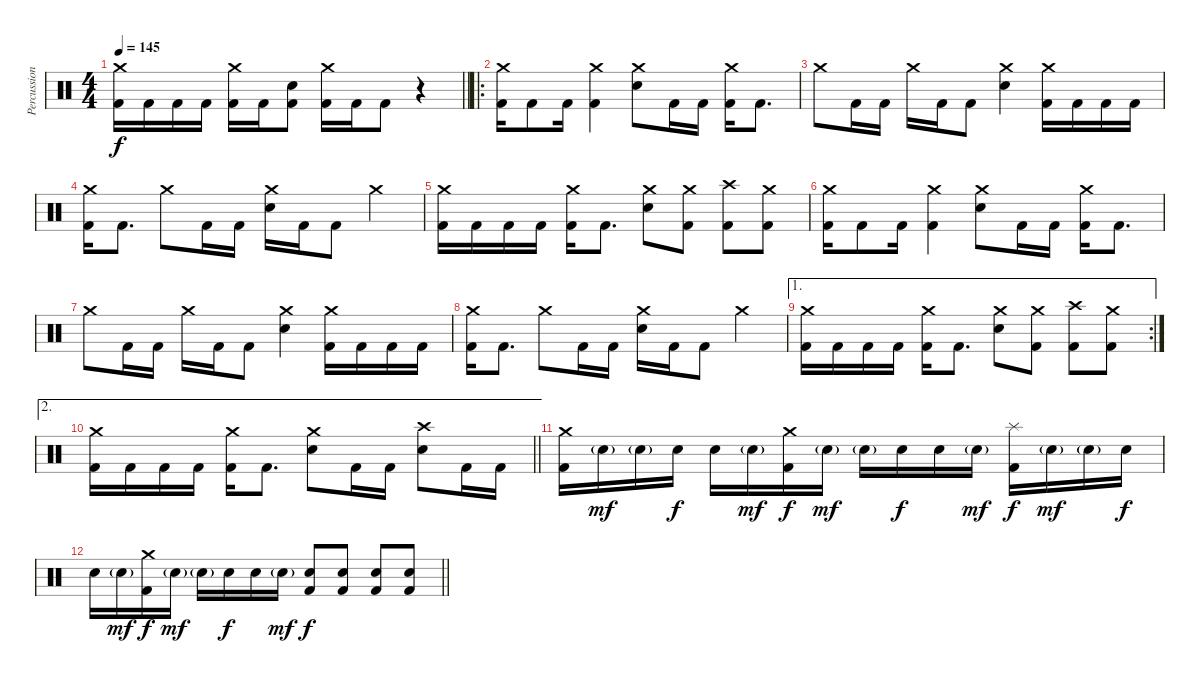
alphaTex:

\track ("Percussions" "Percussion") {instrument percussion}
\staff {score}
\articulation defaults
\ts (4 4)
\tempo 145
\clef neutral
\barLineRight lightlight
\ks c
("Crash medium (hit)" "Kick (hit) 2").16{dy f} "Kick (hit) 2".16 "Kick (hit) 2".16 "Kick (hit) 2".16 ("Crash medium (hit)" "Kick (hit) 2").16 "Kick (hit) 2".16 ("Electric Snare (hit)" "Kick (hit) 2").8 ("Crash medium (hit)" "Kick (hit) 2").16 "Kick (hit) 2".16 "Kick (hit) 2".8 r.4 |
\ro
\section ("" "")
("Crash medium (hit)" "Kick (hit) 2").16 "Kick (hit) 2".8 "Kick (hit) 2".16 ("Crash medium (hit)" "Kick (hit) 2").4 ("Crash medium (hit)" "Electric Snare (hit)").8 "Kick (hit) 2".16 "Kick (hit) 2".16 ("Crash medium (hit)" "Kick (hit) 2").16 "Kick (hit) 2".8{d} |
"Crash medium (hit)".8 "Kick (hit) 2".16 "Kick (hit) 2".16 "Crash medium (hit)".16 "Kick (hit) 2".16 "Kick (hit) 2".8 ("Crash medium (hit)" "Electric Snare (hit)").4 ("Crash medium (hit)" "Kick (hit) 2").16 "Kick (hit) 2".16 "Kick (hit) 2".16 "Kick (hit) 2".16 |
("Crash medium (hit)" "Kick (hit) 2").16 "Kick (hit) 2".8{d} "Crash medium (hit)".8 "Kick (hit) 2".16 "Kick (hit) 2".16 ("Crash medium (hit)" "Electric Snare (hit)").16 "Kick (hit) 2".16 "Kick (hit) 2".8 "Crash medium (hit)".4 |
("Crash medium (hit)" "Kick (hit) 2").16 "Kick (hit) 2".16 "Kick (hit) 2".16 "Kick (hit) 2".16 ("Crash medium (hit)" "Kick (hit) 2").16 "Kick (hit) 2".8{d} ("Crash medium (hit)" "Electric Snare (hit)").8 ("Crash medium (hit)" "Kick (hit) 2").8 ("Crash high (hit)" "Kick (hit) 2").8 ("Crash medium (hit)" "Kick (hit) 2").8 |
("Crash medium (hit)" "Kick (hit) 2").16 "Kick (hit) 2".8 "Kick (hit) 2".16 ("Crash medium (hit)" "Kick (hit) 2").4 ("Crash medium (hit)" "Electric Snare (hit)").8 "Kick (hit) 2".16 "Kick (hit) 2".16 ("Crash medium (hit)" "Kick (hit) 2").16 "Kick (hit) 2".8{d} |
"Crash medium (hit)".8 "Kick (hit) 2".16 "Kick (hit) 2".16 "Crash medium (hit)".16 "Kick (hit) 2".16 "Kick (hit) 2".8 ("Crash medium (hit)" "Electric Snare (hit)").4 ("Crash medium (hit)" "Kick (hit) 2").16 "Kick (hit) 2".16 "Kick (hit) 2".16 "Kick (hit) 2".16 |
("Crash medium (hit)" "Kick (hit) 2").16 "Kick (hit) 2".8{d} "Crash medium (hit)".8 "Kick (hit) 2".16 "Kick (hit) 2".16 ("Crash medium (hit)" "Electric Snare (hit)").16 "Kick (hit) 2".16 "Kick (hit) 2".8 "Crash medium (hit)".4 |
\ae 1
\rc 2
("Crash medium (hit)" "Kick (hit) 2").16 "Kick (hit) 2".16 "Kick (hit) 2".16 "Kick (hit) 2".16 ("Crash medium (hit)" "Kick (hit) 2").16 "Kick (hit) 2".8{d} ("Crash medium (hit)" "Electric Snare (hit)").8 ("Crash medium (hit)" "Kick (hit) 2").8 ("Crash high (hit)" "Kick (hit) 2").8 ("Crash medium (hit)" "Kick (hit) 2").8 |
\ae 2
\barLineRight lightlight
("Crash medium (hit)" "Kick (hit) 2").16 "Kick (hit) 2".16 "Kick (hit) 2".16 "Kick (hit) 2".16 ("Crash medium (hit)" "Kick (hit) 2").16 "Kick (hit) 2".8{d} ("Crash medium (hit)" "Electric Snare (hit)").8 "Kick (hit) 2".16 "Kick (hit) 2".16 ("Crash high (hit)" "Electric Snare (hit)").8 "Kick (hit) 2".16 "Kick (hit) 2".16 |
("Crash medium (hit)" "Kick (hit) 2").16 "Electric Snare (hit)"{g}.16{dy mf} "Electric Snare (hit)"{g}.16 "Electric Snare (hit)".16{dy f} "Electric Snare (hit)".16 "Electric Snare (hit)"{g}.16{dy mf} ("Crash medium (hit)" "Kick (hit) 2").16{dy f} "Electric Snare (hit)"{g}.16{dy mf} "Electric Snare (hit)"{g}.16 "Electric Snare (hit)".16{dy f} "Electric Snare (hit)".16 "Electric Snare (hit)"{g}.16{dy mf} ("Splash (hit)" "Kick (hit) 2").16{dy f} "Electric Snare (hit)"{g}.16{dy mf} "Electric Snare (hit)"{g}.16 "Electric Snare (hit)".16{dy f} |
\barLineRight lightlight "Electric Snare (hit)".16 "Electric Snare (hit)"{g}.16{dy mf}
("Crash medium (hit)" "Kick (hit) 2").16{dy f} "Electric Snare (hit)"{g}.16{dy mf} "Electric Snare (hit)"{g}.16 "Electric Snare (hit)".16{dy f} "Electric Snare (hit)".16 "Electric Snare (hit)"{g}.16{dy mf} ("Electric Snare (hit)" "Kick (hit) 2").8{dy f} ("Electric Snare (hit)" "Kick (hit) 2").8 ("Electric Snare (hit)" "Kick (hit) 2").8 ("Electric Snare (hit)" "Kick (hit) 2").8
